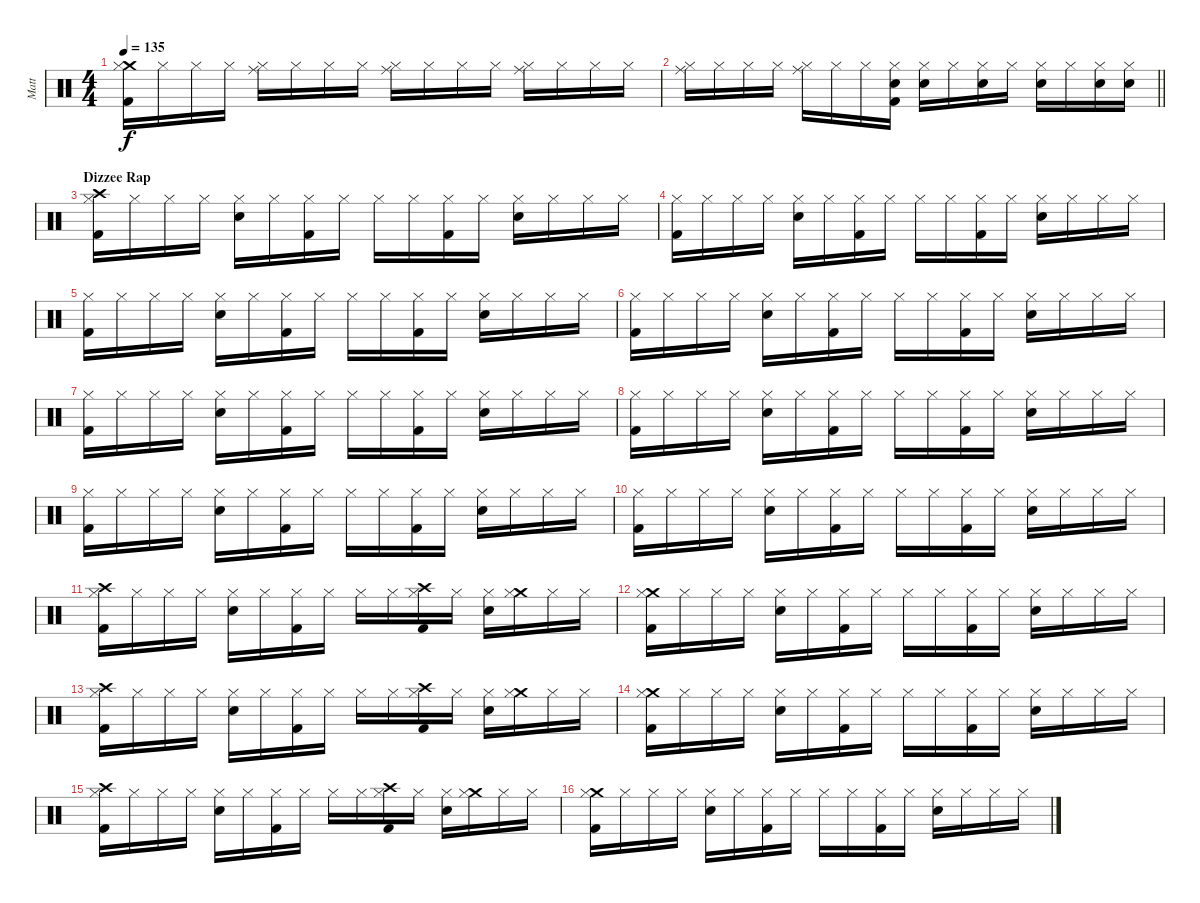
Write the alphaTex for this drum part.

\track ("Matt" "Matt") {instrument percussion}
\staff {score}
\articulation defaults
\ts (4 4)
\tempo 135
\clef neutral
\ks c
("Crash medium (hit)" "Hi-Hat (closed)" "Kick (hit) 2").16{dy f} "Hi-Hat (closed)".16 "Hi-Hat (closed)".16 "Hi-Hat (closed)".16 ("Hi-Hat (closed)" "Ride (middle)").16 "Hi-Hat (closed)".16 "Hi-Hat (closed)".16 "Hi-Hat (closed)".16 ("Hi-Hat (closed)" "Ride (middle)").16 "Hi-Hat (closed)".16 "Hi-Hat (closed)".16 "Hi-Hat (closed)".16 ("Hi-Hat (closed)" "Ride (middle)").16 "Hi-Hat (closed)".16 "Hi-Hat (closed)".16 "Hi-Hat (closed)".16 |
\barLineRight lightlight
("Hi-Hat (closed)" "Ride (middle)").16 "Hi-Hat (closed)".16 "Hi-Hat (closed)".16 "Hi-Hat (closed)".16 ("Hi-Hat (closed)" "Ride (middle)").16 "Hi-Hat (closed)".16 "Hi-Hat (closed)".16 ("Hi-Hat (closed)" "Snare (hit) 2" "Kick (hit) 2").16 ("Hi-Hat (closed)" "Snare (hit) 2").16 "Hi-Hat (closed)".16 ("Hi-Hat (closed)" "Snare (hit) 2").16 "Hi-Hat (closed)".16 ("Hi-Hat (closed)" "Snare (hit) 2").16 "Hi-Hat (closed)".16 ("Hi-Hat (closed)" "Snare (hit) 2").16 ("Hi-Hat (closed)" "Snare (hit) 2").16 |
\section ("" "Dizzee Rap")
("Crash high (hit)" "Hi-Hat (closed)" "Kick (hit) 2").16 "Hi-Hat (closed)".16 "Hi-Hat (closed)".16 "Hi-Hat (closed)".16 ("Hi-Hat (closed)" "Snare (hit) 2").16 "Hi-Hat (closed)".16 ("Hi-Hat (closed)" "Kick (hit) 2").16 "Hi-Hat (closed)".16 "Hi-Hat (closed)".16 "Hi-Hat (closed)".16 ("Hi-Hat (closed)" "Kick (hit) 2").16 "Hi-Hat (closed)".16 ("Hi-Hat (closed)" "Snare (hit) 2").16 "Hi-Hat (closed)".16 "Hi-Hat (closed)".16 "Hi-Hat (closed)".16 |
("Hi-Hat (closed)" "Kick (hit) 2").16 "Hi-Hat (closed)".16 "Hi-Hat (closed)".16 "Hi-Hat (closed)".16 ("Hi-Hat (closed)" "Snare (hit) 2").16 "Hi-Hat (closed)".16 ("Hi-Hat (closed)" "Kick (hit) 2").16 "Hi-Hat (closed)".16 "Hi-Hat (closed)".16 "Hi-Hat (closed)".16 ("Hi-Hat (closed)" "Kick (hit) 2").16 "Hi-Hat (closed)".16 ("Hi-Hat (closed)" "Snare (hit) 2").16 "Hi-Hat (closed)".16 "Hi-Hat (closed)".16 "Hi-Hat (closed)".16 |
("Hi-Hat (closed)" "Kick (hit) 2").16 "Hi-Hat (closed)".16 "Hi-Hat (closed)".16 "Hi-Hat (closed)".16 ("Hi-Hat (closed)" "Snare (hit) 2").16 "Hi-Hat (closed)".16 ("Hi-Hat (closed)" "Kick (hit) 2").16 "Hi-Hat (closed)".16 "Hi-Hat (closed)".16 "Hi-Hat (closed)".16 ("Hi-Hat (closed)" "Kick (hit) 2").16 "Hi-Hat (closed)".16 ("Hi-Hat (closed)" "Snare (hit) 2").16 "Hi-Hat (closed)".16 "Hi-Hat (closed)".16 "Hi-Hat (closed)".16 |
("Hi-Hat (closed)" "Kick (hit) 2").16 "Hi-Hat (closed)".16 "Hi-Hat (closed)".16 "Hi-Hat (closed)".16 ("Hi-Hat (closed)" "Snare (hit) 2").16 "Hi-Hat (closed)".16 ("Hi-Hat (closed)" "Kick (hit) 2").16 "Hi-Hat (closed)".16 "Hi-Hat (closed)".16 "Hi-Hat (closed)".16 ("Hi-Hat (closed)" "Kick (hit) 2").16 "Hi-Hat (closed)".16 ("Hi-Hat (closed)" "Snare (hit) 2").16 "Hi-Hat (closed)".16 "Hi-Hat (closed)".16 "Hi-Hat (closed)".16 |
("Hi-Hat (closed)" "Kick (hit) 2").16 "Hi-Hat (closed)".16 "Hi-Hat (closed)".16 "Hi-Hat (closed)".16 ("Hi-Hat (closed)" "Snare (hit) 2").16 "Hi-Hat (closed)".16 ("Hi-Hat (closed)" "Kick (hit) 2").16 "Hi-Hat (closed)".16 "Hi-Hat (closed)".16 "Hi-Hat (closed)".16 ("Hi-Hat (closed)" "Kick (hit) 2").16 "Hi-Hat (closed)".16 ("Hi-Hat (closed)" "Snare (hit) 2").16 "Hi-Hat (closed)".16 "Hi-Hat (closed)".16 "Hi-Hat (closed)".16 |
("Hi-Hat (closed)" "Kick (hit) 2").16 "Hi-Hat (closed)".16 "Hi-Hat (closed)".16 "Hi-Hat (closed)".16 ("Hi-Hat (closed)" "Snare (hit) 2").16 "Hi-Hat (closed)".16 ("Hi-Hat (closed)" "Kick (hit) 2").16 "Hi-Hat (closed)".16 "Hi-Hat (closed)".16 "Hi-Hat (closed)".16 ("Hi-Hat (closed)" "Kick (hit) 2").16 "Hi-Hat (closed)".16 ("Hi-Hat (closed)" "Snare (hit) 2").16 "Hi-Hat (closed)".16 "Hi-Hat (closed)".16 "Hi-Hat (closed)".16 |
("Hi-Hat (closed)" "Kick (hit) 2").16 "Hi-Hat (closed)".16 "Hi-Hat (closed)".16 "Hi-Hat (closed)".16 ("Hi-Hat (closed)" "Snare (hit) 2").16 "Hi-Hat (closed)".16 ("Hi-Hat (closed)" "Kick (hit) 2").16 "Hi-Hat (closed)".16 "Hi-Hat (closed)".16 "Hi-Hat (closed)".16 ("Hi-Hat (closed)" "Kick (hit) 2").16 "Hi-Hat (closed)".16 ("Hi-Hat (closed)" "Snare (hit) 2").16 "Hi-Hat (closed)".16 "Hi-Hat (closed)".16 "Hi-Hat (closed)".16 |
("Hi-Hat (closed)" "Kick (hit) 2").16 "Hi-Hat (closed)".16 "Hi-Hat (closed)".16 "Hi-Hat (closed)".16 ("Hi-Hat (closed)" "Snare (hit) 2").16 "Hi-Hat (closed)".16 ("Hi-Hat (closed)" "Kick (hit) 2").16 "Hi-Hat (closed)".16 "Hi-Hat (closed)".16 "Hi-Hat (closed)".16 ("Hi-Hat (closed)" "Kick (hit) 2").16 "Hi-Hat (closed)".16 ("Hi-Hat (closed)" "Snare (hit) 2").16 "Hi-Hat (closed)".16 "Hi-Hat (closed)".16 "Hi-Hat (closed)".16 |
("Crash high (hit)" "Hi-Hat (closed)" "Kick (hit) 2").16 "Hi-Hat (closed)".16 "Hi-Hat (closed)".16 "Hi-Hat (closed)".16 ("Hi-Hat (closed)" "Snare (hit) 2").16 "Hi-Hat (closed)".16 ("Hi-Hat (closed)" "Kick (hit) 2").16 "Hi-Hat (closed)".16 "Hi-Hat (closed)".16 "Hi-Hat (closed)".16 ("Crash high (hit)" "Hi-Hat (closed)" "Kick (hit) 2").16 "Hi-Hat (closed)".16 ("Hi-Hat (closed)" "Snare (hit) 2").16 ("Crash medium (hit)" "Hi-Hat (closed)").16 "Hi-Hat (closed)".16 "Hi-Hat (closed)".16 |
("Crash medium (hit)" "Hi-Hat (closed)" "Kick (hit) 2").16 "Hi-Hat (closed)".16 "Hi-Hat (closed)".16 "Hi-Hat (closed)".16 ("Hi-Hat (closed)" "Snare (hit) 2").16 "Hi-Hat (closed)".16 ("Hi-Hat (closed)" "Kick (hit) 2").16 "Hi-Hat (closed)".16 "Hi-Hat (closed)".16 "Hi-Hat (closed)".16 ("Hi-Hat (closed)" "Kick (hit) 2").16 "Hi-Hat (closed)".16 ("Hi-Hat (closed)" "Snare (hit) 2").16 "Hi-Hat (closed)".16 "Hi-Hat (closed)".16 "Hi-Hat (closed)".16 |
("Crash high (hit)" "Hi-Hat (closed)" "Kick (hit) 2").16 "Hi-Hat (closed)".16 "Hi-Hat (closed)".16 "Hi-Hat (closed)".16 ("Hi-Hat (closed)" "Snare (hit) 2").16 "Hi-Hat (closed)".16 ("Hi-Hat (closed)" "Kick (hit) 2").16 "Hi-Hat (closed)".16 "Hi-Hat (closed)".16 "Hi-Hat (closed)".16 ("Crash high (hit)" "Hi-Hat (closed)" "Kick (hit) 2").16 "Hi-Hat (closed)".16 ("Hi-Hat (closed)" "Snare (hit) 2").16 ("Crash medium (hit)" "Hi-Hat (closed)").16 "Hi-Hat (closed)".16 "Hi-Hat (closed)".16 |
("Crash medium (hit)" "Hi-Hat (closed)" "Kick (hit) 2").16 "Hi-Hat (closed)".16 "Hi-Hat (closed)".16 "Hi-Hat (closed)".16 ("Hi-Hat (closed)" "Snare (hit) 2").16 "Hi-Hat (closed)".16 ("Hi-Hat (closed)" "Kick (hit) 2").16 "Hi-Hat (closed)".16 "Hi-Hat (closed)".16 "Hi-Hat (closed)".16 ("Hi-Hat (closed)" "Kick (hit) 2").16 "Hi-Hat (closed)".16 ("Hi-Hat (closed)" "Snare (hit) 2").16 "Hi-Hat (closed)".16 "Hi-Hat (closed)".16 "Hi-Hat (closed)".16 |
("Crash high (hit)" "Hi-Hat (closed)" "Kick (hit) 2").16 "Hi-Hat (closed)".16 "Hi-Hat (closed)".16 "Hi-Hat (closed)".16 ("Hi-Hat (closed)" "Snare (hit) 2").16 "Hi-Hat (closed)".16 ("Hi-Hat (closed)" "Kick (hit) 2").16 "Hi-Hat (closed)".16 "Hi-Hat (closed)".16 "Hi-Hat (closed)".16 ("Crash high (hit)" "Hi-Hat (closed)" "Kick (hit) 2").16 "Hi-Hat (closed)".16 ("Hi-Hat (closed)" "Snare (hit) 2").16 ("Crash medium (hit)" "Hi-Hat (closed)").16 "Hi-Hat (closed)".16 "Hi-Hat (closed)".16 |
("Crash medium (hit)" "Hi-Hat (closed)" "Kick (hit) 2").16 "Hi-Hat (closed)".16 "Hi-Hat (closed)".16 "Hi-Hat (closed)".16 ("Hi-Hat (closed)" "Snare (hit) 2").16 "Hi-Hat (closed)".16 ("Hi-Hat (closed)" "Kick (hit) 2").16 "Hi-Hat (closed)".16 "Hi-Hat (closed)".16 "Hi-Hat (closed)".16 ("Hi-Hat (closed)" "Kick (hit) 2").16 "Hi-Hat (closed)".16 ("Hi-Hat (closed)" "Snare (hit) 2").16 "Hi-Hat (closed)".16 "Hi-Hat (closed)".16 "Hi-Hat (closed)".16
